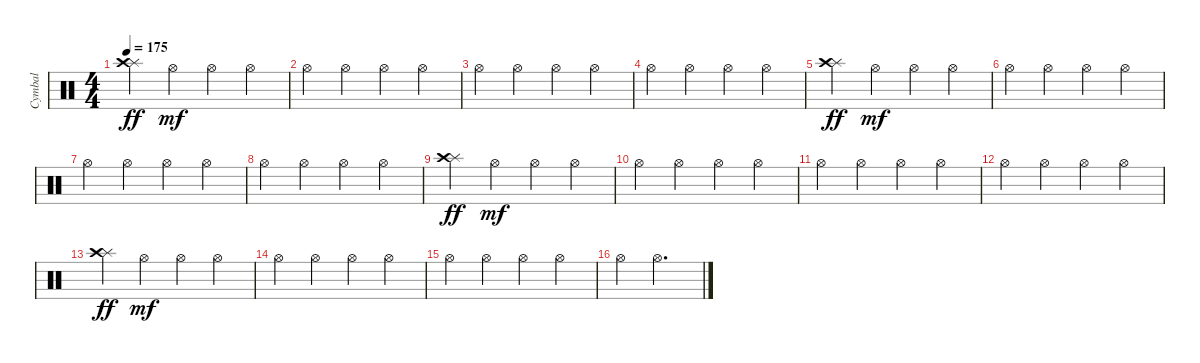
\track ("Cymbal" "Cymbal") {instrument percussion}
\staff {score}
\articulation defaults
\ts (4 4)
\tempo 175
\clef neutral
\ks c
("Splash (hit)" "Crash high (hit)").4{dy ff} "Hi-Hat (open)".4{dy mf} "Hi-Hat (open)".4 "Hi-Hat (open)".4 |
"Hi-Hat (open)".4 "Hi-Hat (open)".4 "Hi-Hat (open)".4 "Hi-Hat (open)".4 |
"Hi-Hat (open)".4 "Hi-Hat (open)".4 "Hi-Hat (open)".4 "Hi-Hat (open)".4 |
"Hi-Hat (open)".4 "Hi-Hat (open)".4 "Hi-Hat (open)".4 "Hi-Hat (open)".4 |
("Splash (hit)" "Crash high (hit)").4{dy ff} "Hi-Hat (open)".4{dy mf} "Hi-Hat (open)".4 "Hi-Hat (open)".4 |
"Hi-Hat (open)".4 "Hi-Hat (open)".4 "Hi-Hat (open)".4 "Hi-Hat (open)".4 |
"Hi-Hat (open)".4 "Hi-Hat (open)".4 "Hi-Hat (open)".4 "Hi-Hat (open)".4 |
"Hi-Hat (open)".4 "Hi-Hat (open)".4 "Hi-Hat (open)".4 "Hi-Hat (open)".4 |
("Splash (hit)" "Crash high (hit)").4{dy ff} "Hi-Hat (open)".4{dy mf} "Hi-Hat (open)".4 "Hi-Hat (open)".4 |
"Hi-Hat (open)".4 "Hi-Hat (open)".4 "Hi-Hat (open)".4 "Hi-Hat (open)".4 |
"Hi-Hat (open)".4 "Hi-Hat (open)".4 "Hi-Hat (open)".4 "Hi-Hat (open)".4 |
"Hi-Hat (open)".4 "Hi-Hat (open)".4 "Hi-Hat (open)".4 "Hi-Hat (open)".4 |
("Splash (hit)" "Crash high (hit)").4{dy ff} "Hi-Hat (open)".4{dy mf} "Hi-Hat (open)".4 "Hi-Hat (open)".4 |
"Hi-Hat (open)".4 "Hi-Hat (open)".4 "Hi-Hat (open)".4 "Hi-Hat (open)".4 |
"Hi-Hat (open)".4 "Hi-Hat (open)".4 "Hi-Hat (open)".4 "Hi-Hat (open)".4 |
"Hi-Hat (open)".4 "Hi-Hat (open)".2{d}
